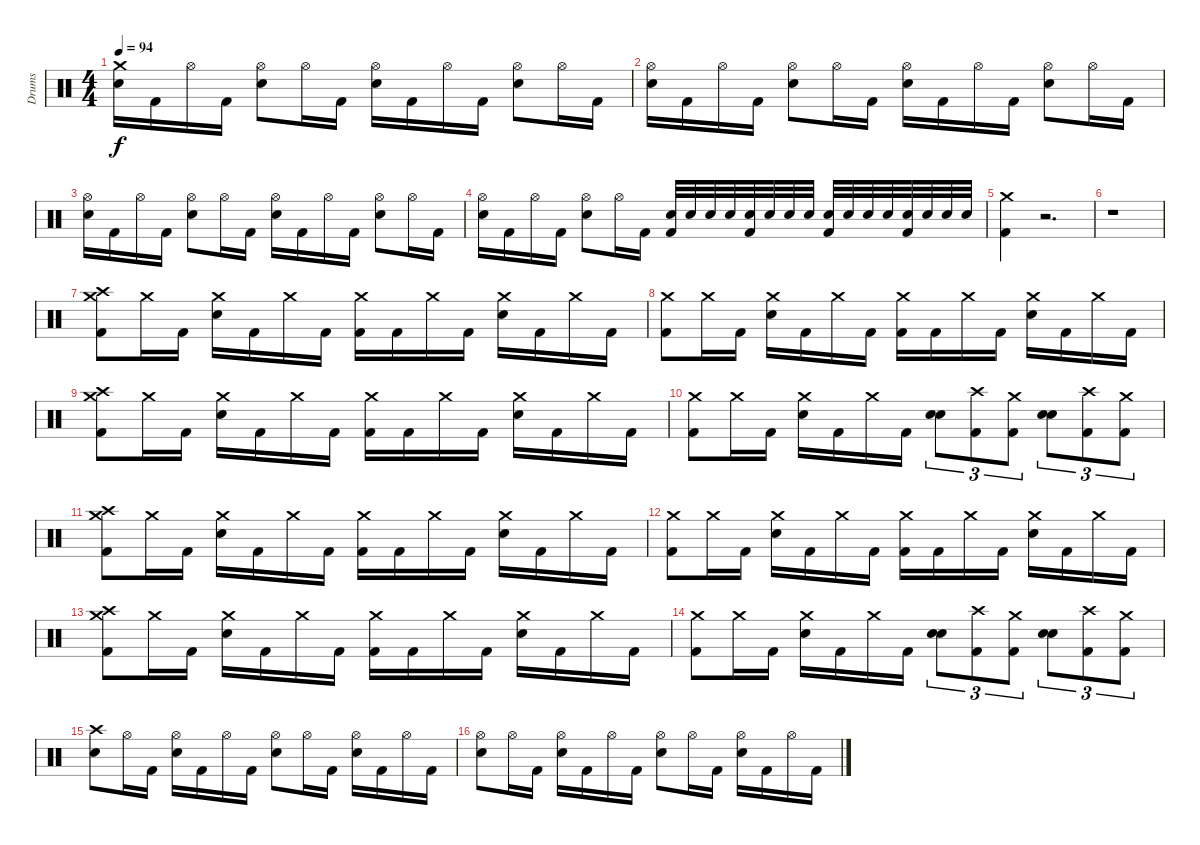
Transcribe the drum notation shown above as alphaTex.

\track ("Drums" "Drums") {instrument percussion}
\staff {score}
\articulation defaults
\ts (4 4)
\tempo 94
\clef neutral
\ks c
("Electric Snare (hit)" "Crash medium (hit)").16{dy f} "Kick (hit) 2".16 "Hi-Hat (open)".16 "Kick (hit) 2".16 ("Hi-Hat (open)" "Electric Snare (hit)").8 "Hi-Hat (open)".16 "Kick (hit) 2".16 ("Hi-Hat (open)" "Electric Snare (hit)").16 "Kick (hit) 2".16 "Hi-Hat (open)".16 "Kick (hit) 2".16 ("Hi-Hat (open)" "Electric Snare (hit)").8 "Hi-Hat (open)".16 "Kick (hit) 2".16 |
("Hi-Hat (open)" "Electric Snare (hit)").16 "Kick (hit) 2".16 "Hi-Hat (open)".16 "Kick (hit) 2".16 ("Hi-Hat (open)" "Electric Snare (hit)").8 "Hi-Hat (open)".16 "Kick (hit) 2".16 ("Hi-Hat (open)" "Electric Snare (hit)").16 "Kick (hit) 2".16 "Hi-Hat (open)".16 "Kick (hit) 2".16 ("Hi-Hat (open)" "Electric Snare (hit)").8 "Hi-Hat (open)".16 "Kick (hit) 2".16 |
("Electric Snare (hit)" "Hi-Hat (open)").16 "Kick (hit) 2".16 "Hi-Hat (open)".16 "Kick (hit) 2".16 ("Electric Snare (hit)" "Hi-Hat (open)").8 "Hi-Hat (open)".16 "Kick (hit) 2".16 ("Electric Snare (hit)" "Hi-Hat (open)").16 "Kick (hit) 2".16 "Hi-Hat (open)".16 "Kick (hit) 2".16 ("Electric Snare (hit)" "Hi-Hat (open)").8 "Hi-Hat (open)".16 "Kick (hit) 2".16 |
("Electric Snare (hit)" "Hi-Hat (open)").16 "Kick (hit) 2".16 "Hi-Hat (open)".16 "Kick (hit) 2".16 ("Electric Snare (hit)" "Hi-Hat (open)").8 "Hi-Hat (open)".16 "Kick (hit) 2".16 ("Kick (hit) 2" "Electric Snare (hit)").32 "Electric Snare (hit)".32 "Electric Snare (hit)".32 "Electric Snare (hit)".32 ("Kick (hit) 2" "Electric Snare (hit)").32 "Electric Snare (hit)".32 "Electric Snare (hit)".32 "Electric Snare (hit)".32 ("Kick (hit) 2" "Electric Snare (hit)").32 "Electric Snare (hit)".32 "Electric Snare (hit)".32 "Electric Snare (hit)".32 ("Kick (hit) 2" "Electric Snare (hit)").32 "Electric Snare (hit)".32 "Electric Snare (hit)".32 "Electric Snare (hit)".32 |
("Crash medium (hit)" "Kick (hit) 2").4 r.2{d} |
r.1 |
("Crash high (hit)" "Crash medium (hit)" "Kick (hit) 2").8 "Crash medium (hit)".16 "Kick (hit) 2".16 ("Crash medium (hit)" "Electric Snare (hit)").16 "Kick (hit) 2".16 "Crash medium (hit)".16 "Kick (hit) 2".16 ("Crash medium (hit)" "Kick (hit) 2").16 "Kick (hit) 2".16 "Crash medium (hit)".16 "Kick (hit) 2".16 ("Electric Snare (hit)" "Crash medium (hit)").16 "Kick (hit) 2".16 "Crash medium (hit)".16 "Kick (hit) 2".16 |
("Crash medium (hit)" "Kick (hit) 2").8 "Crash medium (hit)".16 "Kick (hit) 2".16 ("Crash medium (hit)" "Electric Snare (hit)").16 "Kick (hit) 2".16 "Crash medium (hit)".16 "Kick (hit) 2".16 ("Crash medium (hit)" "Kick (hit) 2").16 "Kick (hit) 2".16 "Crash medium (hit)".16 "Kick (hit) 2".16 ("Electric Snare (hit)" "Crash medium (hit)").16 "Kick (hit) 2".16 "Crash medium (hit)".16 "Kick (hit) 2".16 |
("Crash high (hit)" "Crash medium (hit)" "Kick (hit) 2").8 "Crash medium (hit)".16 "Kick (hit) 2".16 ("Crash medium (hit)" "Electric Snare (hit)").16 "Kick (hit) 2".16 "Crash medium (hit)".16 "Kick (hit) 2".16 ("Crash medium (hit)" "Kick (hit) 2").16 "Kick (hit) 2".16 "Crash medium (hit)".16 "Kick (hit) 2".16 ("Electric Snare (hit)" "Crash medium (hit)").16 "Kick (hit) 2".16 "Crash medium (hit)".16 "Kick (hit) 2".16 |
("Crash medium (hit)" "Kick (hit) 2").8 "Crash medium (hit)".16 "Kick (hit) 2".16 ("Crash medium (hit)" "Electric Snare (hit)").16 "Kick (hit) 2".16 "Crash medium (hit)".16 "Kick (hit) 2".16 ("Snare (hit) 2" "Electric Snare (hit)").8{tu (3 2)} ("Crash high (hit)" "Kick (hit) 2").8{tu (3 2)} ("Crash medium (hit)" "Kick (hit) 2").8{tu (3 2)} ("Snare (hit) 2" "Electric Snare (hit)").8{tu (3 2)} ("Crash high (hit)" "Kick (hit) 2").8{tu (3 2)} ("Crash medium (hit)" "Kick (hit) 2").8{tu (3 2)} |
("Crash high (hit)" "Crash medium (hit)" "Kick (hit) 2").8 "Crash medium (hit)".16 "Kick (hit) 2".16 ("Crash medium (hit)" "Electric Snare (hit)").16 "Kick (hit) 2".16 "Crash medium (hit)".16 "Kick (hit) 2".16 ("Crash medium (hit)" "Kick (hit) 2").16 "Kick (hit) 2".16 "Crash medium (hit)".16 "Kick (hit) 2".16 ("Electric Snare (hit)" "Crash medium (hit)").16 "Kick (hit) 2".16 "Crash medium (hit)".16 "Kick (hit) 2".16 |
("Crash medium (hit)" "Kick (hit) 2").8 "Crash medium (hit)".16 "Kick (hit) 2".16 ("Crash medium (hit)" "Electric Snare (hit)").16 "Kick (hit) 2".16 "Crash medium (hit)".16 "Kick (hit) 2".16 ("Crash medium (hit)" "Kick (hit) 2").16 "Kick (hit) 2".16 "Crash medium (hit)".16 "Kick (hit) 2".16 ("Electric Snare (hit)" "Crash medium (hit)").16 "Kick (hit) 2".16 "Crash medium (hit)".16 "Kick (hit) 2".16 |
("Crash high (hit)" "Crash medium (hit)" "Kick (hit) 2").8 "Crash medium (hit)".16 "Kick (hit) 2".16 ("Crash medium (hit)" "Electric Snare (hit)").16 "Kick (hit) 2".16 "Crash medium (hit)".16 "Kick (hit) 2".16 ("Crash medium (hit)" "Kick (hit) 2").16 "Kick (hit) 2".16 "Crash medium (hit)".16 "Kick (hit) 2".16 ("Electric Snare (hit)" "Crash medium (hit)").16 "Kick (hit) 2".16 "Crash medium (hit)".16 "Kick (hit) 2".16 |
("Crash medium (hit)" "Kick (hit) 2").8 "Crash medium (hit)".16 "Kick (hit) 2".16 ("Crash medium (hit)" "Electric Snare (hit)").16 "Kick (hit) 2".16 "Crash medium (hit)".16 "Kick (hit) 2".16 ("Snare (hit) 2" "Electric Snare (hit)").8{tu (3 2)} ("Crash high (hit)" "Kick (hit) 2").8{tu (3 2)} ("Crash medium (hit)" "Kick (hit) 2").8{tu (3 2)} ("Snare (hit) 2" "Electric Snare (hit)").8{tu (3 2)} ("Crash high (hit)" "Kick (hit) 2").8{tu (3 2)} ("Crash medium (hit)" "Kick (hit) 2").8{tu (3 2)} |
("Electric Snare (hit)" "Crash high (hit)").8 "Hi-Hat (open)".16 "Kick (hit) 2".16 ("Hi-Hat (open)" "Electric Snare (hit)").16 "Kick (hit) 2".16 "Hi-Hat (open)".16 "Kick (hit) 2".16 ("Electric Snare (hit)" "Hi-Hat (open)").8 "Hi-Hat (open)".16 "Kick (hit) 2".16 ("Hi-Hat (open)" "Electric Snare (hit)").16 "Kick (hit) 2".16 "Hi-Hat (open)".16 "Kick (hit) 2".16 |
("Electric Snare (hit)" "Hi-Hat (open)").8 "Hi-Hat (open)".16 "Kick (hit) 2".16 ("Hi-Hat (open)" "Electric Snare (hit)").16 "Kick (hit) 2".16 "Hi-Hat (open)".16 "Kick (hit) 2".16 ("Electric Snare (hit)" "Hi-Hat (open)").8 "Hi-Hat (open)".16 "Kick (hit) 2".16 ("Hi-Hat (open)" "Electric Snare (hit)").16 "Kick (hit) 2".16 "Hi-Hat (open)".16 "Kick (hit) 2".16
